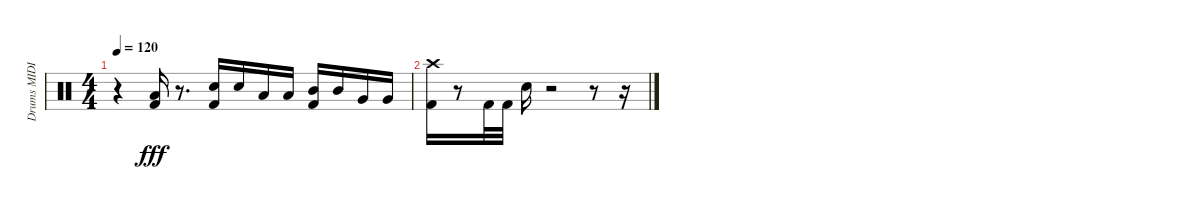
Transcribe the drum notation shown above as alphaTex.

\track ("Drums MIDI" "Drums MIDI") {instrument percussion}
\staff {score}
\articulation defaults
\ts (4 4)
\tempo 120
\clef neutral
\ks c
r.4{dy fff} ("Kick (hit) 2" "Low Tom (hit)").16 r.8{d} ("Kick (hit) 2" "Snare (hit) 2").16 "Snare (hit) 2".16 "Low Tom (hit)".16 "Low Tom (hit)".16 ("Kick (hit) 2" "Mid Tom (hit)").16 "Mid Tom (hit)".16 "Very Low Tom (hit)".16 "Very Low Tom (hit)".16 |
("Kick (hit) 2" "Crash high (hit)").16 r.8 "Kick (hit) 2".32 "Kick (hit) 2".32 "Snare (hit) 2".16 r.2 r.8 r.16
